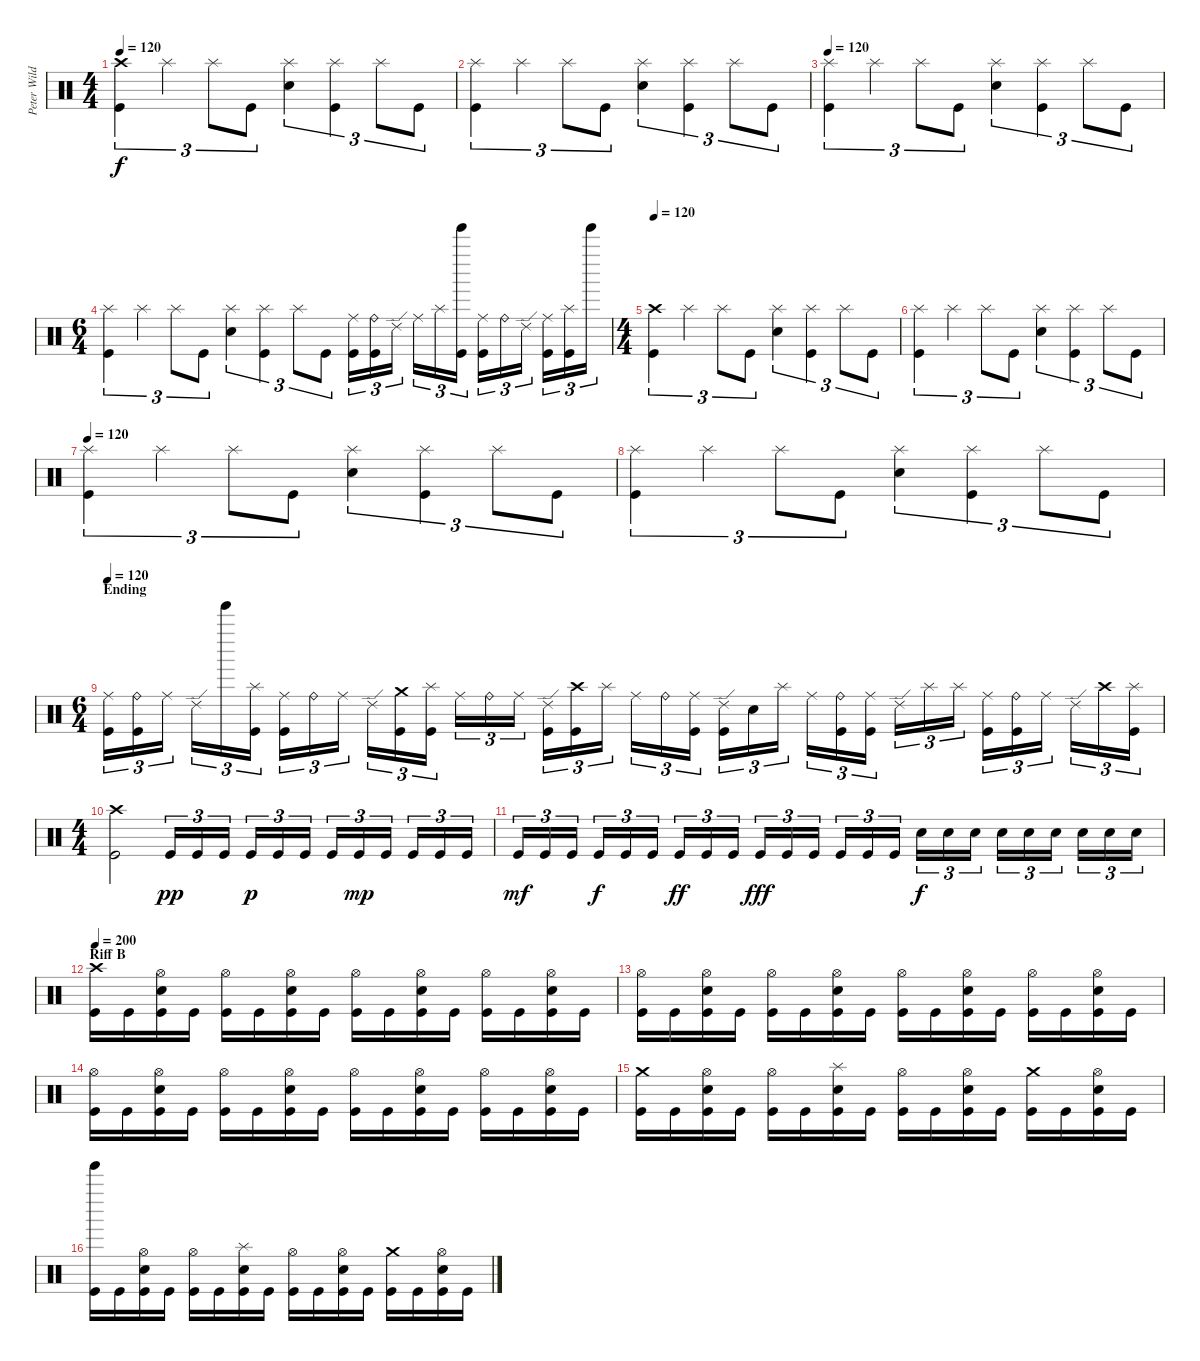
\track ("Peter Wildoer " "Peter Wild") {instrument percussion}
\staff {score}
\articulation defaults
\ts (4 4)
\tempo 120
\clef neutral
\ks c
("Crash high (hit)" "Kick (hit)").4{tu (3 2) dy f} "Splash (hit)".4{tu (3 2)} "Splash (hit)".8{tu (3 2)} "Kick (hit)".8{tu (3 2)} ("Splash (hit)" "Electric Snare (hit)").4{tu (3 2)} ("Splash (hit)" "Kick (hit)").4{tu (3 2)} "Splash (hit)".8{tu (3 2)} "Kick (hit)".8{tu (3 2)} |
("Splash (hit)" "Kick (hit)").4{tu (3 2)} "Splash (hit)".4{tu (3 2)} "Splash (hit)".8{tu (3 2)} "Kick (hit)".8{tu (3 2)} ("Splash (hit)" "Electric Snare (hit)").4{tu (3 2)} ("Splash (hit)" "Kick (hit)").4{tu (3 2)} "Splash (hit)".8{tu (3 2)} "Kick (hit)".8{tu (3 2)} |
\tempo 120
("Splash (hit)" "Kick (hit)").4{tu (3 2)} "Splash (hit)".4{tu (3 2)} "Splash (hit)".8{tu (3 2)} "Kick (hit)".8{tu (3 2)} ("Splash (hit)" "Electric Snare (hit)").4{tu (3 2)} ("Splash (hit)" "Kick (hit)").4{tu (3 2)} "Splash (hit)".8{tu (3 2)} "Kick (hit)".8{tu (3 2)} |
\ts (6 4)
("Splash (hit)" "Kick (hit)").4{tu (3 2)} "Splash (hit)".4{tu (3 2)} "Splash (hit)".8{tu (3 2)} "Kick (hit)".8{tu (3 2)} ("Splash (hit)" "Electric Snare (hit)").4{tu (3 2)} ("Splash (hit)" "Kick (hit)").4{tu (3 2)} "Splash (hit)".8{tu (3 2)} "Kick (hit)".8{tu (3 2)} ("Ride (middle)" "Kick (hit)").16{tu (3 2)} ("Ride (bell)" "Kick (hit)").16{tu (3 2)} "Ride (edge) 2".16{tu (3 2)} "Ride (middle)".16{tu (3 2)} "Splash (hit)".16{tu (3 2)} ("Tinkle Bell (hit)" "Kick (hit)").16{tu (3 2)} ("Ride (middle)" "Kick (hit)").16{tu (3 2)} "Ride (bell)".16{tu (3 2)} "Ride (edge) 2".16{tu (3 2)} ("Ride (middle)" "Kick (hit)").16{tu (3 2)} ("Splash (hit)" "Kick (hit)").16{tu (3 2)} "Tinkle Bell (hit)".16{tu (3 2)} |
\ts (4 4)
\tempo 120
("Crash high (hit)" "Kick (hit)").4{tu (3 2)} "Splash (hit)".4{tu (3 2)} "Splash (hit)".8{tu (3 2)} "Kick (hit)".8{tu (3 2)} ("Splash (hit)" "Electric Snare (hit)").4{tu (3 2)} ("Splash (hit)" "Kick (hit)").4{tu (3 2)} "Splash (hit)".8{tu (3 2)} "Kick (hit)".8{tu (3 2)} |
("Splash (hit)" "Kick (hit)").4{tu (3 2)} "Splash (hit)".4{tu (3 2)} "Splash (hit)".8{tu (3 2)} "Kick (hit)".8{tu (3 2)} ("Splash (hit)" "Electric Snare (hit)").4{tu (3 2)} ("Splash (hit)" "Kick (hit)").4{tu (3 2)} "Splash (hit)".8{tu (3 2)} "Kick (hit)".8{tu (3 2)} |
\tempo 120
("Splash (hit)" "Kick (hit)").4{tu (3 2)} "Splash (hit)".4{tu (3 2)} "Splash (hit)".8{tu (3 2)} "Kick (hit)".8{tu (3 2)} ("Splash (hit)" "Electric Snare (hit)").4{tu (3 2)} ("Splash (hit)" "Kick (hit)").4{tu (3 2)} "Splash (hit)".8{tu (3 2)} "Kick (hit)".8{tu (3 2)} |
("Splash (hit)" "Kick (hit)").4{tu (3 2)} "Splash (hit)".4{tu (3 2)} "Splash (hit)".8{tu (3 2)} "Kick (hit)".8{tu (3 2)} ("Splash (hit)" "Electric Snare (hit)").4{tu (3 2)} ("Splash (hit)" "Kick (hit)").4{tu (3 2)} "Splash (hit)".8{tu (3 2)} "Kick (hit)".8{tu (3 2)} |
\ts (6 4)
\section ("" "Ending")
\tempo 120
("Ride (middle)" "Kick (hit)").16{tu (3 2)} ("Ride (bell)" "Kick (hit)").16{tu (3 2)} "Ride (middle)".16{tu (3 2)} "Ride (edge) 2".16{tu (3 2)} "Tinkle Bell (hit)".16{tu (3 2)} ("Splash (hit)" "Kick (hit)").16{tu (3 2)} ("Ride (middle)" "Kick (hit)").16{tu (3 2)} "Ride (bell)".16{tu (3 2)} "Ride (middle)".16{tu (3 2)} "Ride (edge) 2".16{tu (3 2)} ("Crash medium (hit)" "Kick (hit)").16{tu (3 2)} ("Splash (hit)" "Kick (hit)").16{tu (3 2)} "Ride (middle)".16{tu (3 2)} "Ride (bell)".16{tu (3 2)} "Ride (middle)".16{tu (3 2)} ("Ride (edge) 2" "Kick (hit)").16{tu (3 2)} ("Crash high (hit)" "Kick (hit)").16{tu (3 2)} "Splash (hit)".16{tu (3 2)} "Ride (middle)".16{tu (3 2)} "Ride (bell)".16{tu (3 2)} ("Ride (middle)" "Kick (hit)").16{tu (3 2)} ("Ride (edge) 2" "Kick (hit)").16{tu (3 2)} "Electric Snare (hit)".16{tu (3 2)} "Splash (hit)".16{tu (3 2)} "Ride (middle)".16{tu (3 2)} ("Ride (bell)" "Kick (hit)").16{tu (3 2)} ("Ride (middle)" "Kick (hit)").16{tu (3 2)} "Ride (edge) 2".16{tu (3 2)} "Splash (hit)".16{tu (3 2)} "Splash (hit)".16{tu (3 2)} ("Ride (middle)" "Kick (hit)").16{tu (3 2)} ("Ride (bell)" "Kick (hit)").16{tu (3 2)} "Ride (middle)".16{tu (3 2)} "Ride (edge) 2".16{tu (3 2)} "Crash high (hit)".16{tu (3 2)} ("Splash (hit)" "Kick (hit)").16{tu (3 2)} |
\ts (4 4)
("Crash high (hit)" "Kick (hit)").2 "Kick (hit)".16{tu (3 2) dy pp} "Kick (hit)".16{tu (3 2)} "Kick (hit)".16{tu (3 2)} "Kick (hit)".16{tu (3 2) dy p} "Kick (hit)".16{tu (3 2)} "Kick (hit)".16{tu (3 2)} "Kick (hit)".16{tu (3 2)} "Kick (hit)".16{tu (3 2) dy mp} "Kick (hit)".16{tu (3 2)} "Kick (hit)".16{tu (3 2)} "Kick (hit)".16{tu (3 2)} "Kick (hit)".16{tu (3 2)} |
"Kick (hit)".16{tu (3 2) dy mf} "Kick (hit)".16{tu (3 2)} "Kick (hit)".16{tu (3 2)} "Kick (hit)".16{tu (3 2) dy f} "Kick (hit)".16{tu (3 2)} "Kick (hit)".16{tu (3 2)} "Kick (hit)".16{tu (3 2) dy ff} "Kick (hit)".16{tu (3 2)} "Kick (hit)".16{tu (3 2)} "Kick (hit)".16{tu (3 2) dy fff} "Kick (hit)".16{tu (3 2)} "Kick (hit)".16{tu (3 2)} "Kick (hit)".16{tu (3 2)} "Kick (hit)".16{tu (3 2)} "Kick (hit)".16{tu (3 2)} "Electric Snare (hit)".16{tu (3 2) dy f} "Electric Snare (hit)".16{tu (3 2)} "Electric Snare (hit)".16{tu (3 2)} "Electric Snare (hit)".16{tu (3 2)} "Electric Snare (hit)".16{tu (3 2)} "Electric Snare (hit)".16{tu (3 2)} "Electric Snare (hit)".16{tu (3 2)} "Electric Snare (hit)".16{tu (3 2)} "Electric Snare (hit)".16{tu (3 2)} |
\section ("" "Riff B")
\tempo 200
("Crash high (hit)" "Kick (hit)").16 "Kick (hit)".16 ("Hi-Hat (open)" "Electric Snare (hit)" "Kick (hit)").16 "Kick (hit)".16 ("Hi-Hat (open)" "Kick (hit)").16 "Kick (hit)".16 ("Hi-Hat (open)" "Electric Snare (hit)" "Kick (hit)").16 "Kick (hit)".16 ("Hi-Hat (open)" "Kick (hit)").16 "Kick (hit)".16 ("Hi-Hat (open)" "Electric Snare (hit)" "Kick (hit)").16 "Kick (hit)".16 ("Hi-Hat (open)" "Kick (hit)").16 "Kick (hit)".16 ("Hi-Hat (open)" "Electric Snare (hit)" "Kick (hit)").16 "Kick (hit)".16 |
("Hi-Hat (open)" "Kick (hit)").16 "Kick (hit)".16 ("Hi-Hat (open)" "Electric Snare (hit)" "Kick (hit)").16 "Kick (hit)".16 ("Hi-Hat (open)" "Kick (hit)").16 "Kick (hit)".16 ("Hi-Hat (open)" "Electric Snare (hit)" "Kick (hit)").16 "Kick (hit)".16 ("Hi-Hat (open)" "Kick (hit)").16 "Kick (hit)".16 ("Hi-Hat (open)" "Electric Snare (hit)" "Kick (hit)").16 "Kick (hit)".16 ("Hi-Hat (open)" "Kick (hit)").16 "Kick (hit)".16 ("Hi-Hat (open)" "Electric Snare (hit)" "Kick (hit)").16 "Kick (hit)".16 |
("Hi-Hat (open)" "Kick (hit)").16 "Kick (hit)".16 ("Hi-Hat (open)" "Electric Snare (hit)" "Kick (hit)").16 "Kick (hit)".16 ("Hi-Hat (open)" "Kick (hit)").16 "Kick (hit)".16 ("Hi-Hat (open)" "Electric Snare (hit)" "Kick (hit)").16 "Kick (hit)".16 ("Hi-Hat (open)" "Kick (hit)").16 "Kick (hit)".16 ("Hi-Hat (open)" "Electric Snare (hit)" "Kick (hit)").16 "Kick (hit)".16 ("Hi-Hat (open)" "Kick (hit)").16 "Kick (hit)".16 ("Hi-Hat (open)" "Electric Snare (hit)" "Kick (hit)").16 "Kick (hit)".16 |
("Crash medium (hit)" "Kick (hit)").16 "Kick (hit)".16 ("Hi-Hat (open)" "Electric Snare (hit)" "Kick (hit)").16 "Kick (hit)".16 ("Hi-Hat (open)" "Kick (hit)").16 "Kick (hit)".16 ("Splash (hit)" "Electric Snare (hit)" "Kick (hit)").16 "Kick (hit)".16 ("Hi-Hat (open)" "Kick (hit)").16 "Kick (hit)".16 ("Hi-Hat (open)" "Electric Snare (hit)" "Kick (hit)").16 "Kick (hit)".16 ("Crash medium (hit)" "Kick (hit)").16 "Kick (hit)".16 ("Hi-Hat (open)" "Electric Snare (hit)" "Kick (hit)").16 "Kick (hit)".16 |
("Tinkle Bell (hit)" "Kick (hit)").16 "Kick (hit)".16 ("Hi-Hat (open)" "Electric Snare (hit)" "Kick (hit)").16 "Kick (hit)".16 ("Hi-Hat (open)" "Kick (hit)").16 "Kick (hit)".16 ("Splash (hit)" "Electric Snare (hit)" "Kick (hit)").16 "Kick (hit)".16 ("Hi-Hat (open)" "Kick (hit)").16 "Kick (hit)".16 ("Hi-Hat (open)" "Electric Snare (hit)" "Kick (hit)").16 "Kick (hit)".16 ("Crash medium (hit)" "Kick (hit)").16 "Kick (hit)".16 ("Hi-Hat (open)" "Electric Snare (hit)" "Kick (hit)").16 "Kick (hit)".16
